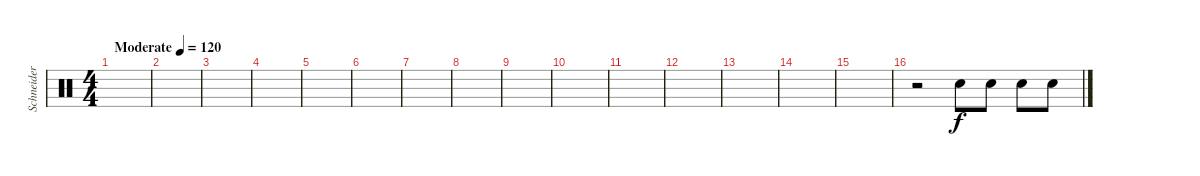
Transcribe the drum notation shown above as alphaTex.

\track ("Schneider" "Schneider") {instrument percussion}
\staff {score}
\articulation defaults
\ts (4 4)
\tempo (120 "Moderate")
\clef neutral
\ks c
|
|
|
|
|
|
|
|
|
|
|
|
|
|
|
r.2 "Snare (hit) 2".8 "Snare (hit) 2".8 "Snare (hit) 2".8 "Snare (hit) 2".8
